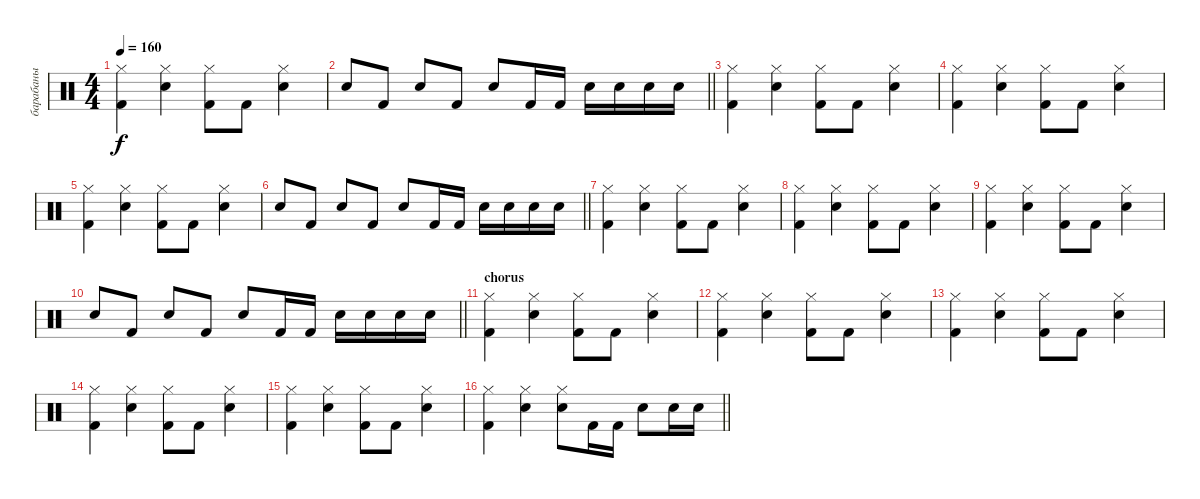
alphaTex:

\track ("барабаны" "барабаны") {instrument percussion}
\staff {score}
\articulation defaults
\ts (4 4)
\tempo 160
\clef neutral
\ks c
("Hi-Hat (closed)" "Kick (hit) 2").4{dy f} ("Hi-Hat (closed)" "Snare (hit) 2").4 ("Hi-Hat (closed)" "Kick (hit) 2").8 "Kick (hit) 2".8 ("Hi-Hat (closed)" "Snare (hit) 2").4 |
\barLineRight lightlight "Snare (hit) 2".8 "Kick (hit) 2".8 "Snare (hit) 2".8 "Kick (hit) 2".8 "Snare (hit) 2".8 "Kick (hit) 2".16 "Kick (hit) 2".16 "Snare (hit) 2".16 "Snare (hit) 2".16 "Snare (hit) 2".16 "Snare (hit) 2".16
|
("Hi-Hat (closed)" "Kick (hit) 2").4 ("Hi-Hat (closed)" "Snare (hit) 2").4 ("Hi-Hat (closed)" "Kick (hit) 2").8 "Kick (hit) 2".8 ("Hi-Hat (closed)" "Snare (hit) 2").4 |
("Hi-Hat (closed)" "Kick (hit) 2").4 ("Hi-Hat (closed)" "Snare (hit) 2").4 ("Hi-Hat (closed)" "Kick (hit) 2").8 "Kick (hit) 2".8 ("Hi-Hat (closed)" "Snare (hit) 2").4 |
("Hi-Hat (closed)" "Kick (hit) 2").4 ("Hi-Hat (closed)" "Snare (hit) 2").4 ("Hi-Hat (closed)" "Kick (hit) 2").8 "Kick (hit) 2".8 ("Hi-Hat (closed)" "Snare (hit) 2").4 |
\barLineRight lightlight "Snare (hit) 2".8 "Kick (hit) 2".8 "Snare (hit) 2".8 "Kick (hit) 2".8 "Snare (hit) 2".8 "Kick (hit) 2".16 "Kick (hit) 2".16 "Snare (hit) 2".16 "Snare (hit) 2".16 "Snare (hit) 2".16 "Snare (hit) 2".16
|
("Hi-Hat (closed)" "Kick (hit) 2").4 ("Hi-Hat (closed)" "Snare (hit) 2").4 ("Hi-Hat (closed)" "Kick (hit) 2").8 "Kick (hit) 2".8 ("Hi-Hat (closed)" "Snare (hit) 2").4 |
("Hi-Hat (closed)" "Kick (hit) 2").4 ("Hi-Hat (closed)" "Snare (hit) 2").4 ("Hi-Hat (closed)" "Kick (hit) 2").8 "Kick (hit) 2".8 ("Hi-Hat (closed)" "Snare (hit) 2").4 |
("Hi-Hat (closed)" "Kick (hit) 2").4 ("Hi-Hat (closed)" "Snare (hit) 2").4 ("Hi-Hat (closed)" "Kick (hit) 2").8 "Kick (hit) 2".8 ("Hi-Hat (closed)" "Snare (hit) 2").4 |
\barLineRight lightlight "Snare (hit) 2".8 "Kick (hit) 2".8 "Snare (hit) 2".8 "Kick (hit) 2".8 "Snare (hit) 2".8 "Kick (hit) 2".16 "Kick (hit) 2".16 "Snare (hit) 2".16 "Snare (hit) 2".16 "Snare (hit) 2".16 "Snare (hit) 2".16
|
\section ("" "chorus")
("Hi-Hat (closed)" "Kick (hit) 2").4 ("Hi-Hat (closed)" "Snare (hit) 2").4 ("Hi-Hat (closed)" "Kick (hit) 2").8 "Kick (hit) 2".8 ("Hi-Hat (closed)" "Snare (hit) 2").4 |
("Hi-Hat (closed)" "Kick (hit) 2").4 ("Hi-Hat (closed)" "Snare (hit) 2").4 ("Hi-Hat (closed)" "Kick (hit) 2").8 "Kick (hit) 2".8 ("Hi-Hat (closed)" "Snare (hit) 2").4 |
("Hi-Hat (closed)" "Kick (hit) 2").4 ("Hi-Hat (closed)" "Snare (hit) 2").4 ("Hi-Hat (closed)" "Kick (hit) 2").8 "Kick (hit) 2".8 ("Hi-Hat (closed)" "Snare (hit) 2").4 |
("Hi-Hat (closed)" "Kick (hit) 2").4 ("Hi-Hat (closed)" "Snare (hit) 2").4 ("Hi-Hat (closed)" "Kick (hit) 2").8 "Kick (hit) 2".8 ("Hi-Hat (closed)" "Snare (hit) 2").4 |
("Hi-Hat (closed)" "Kick (hit) 2").4 ("Hi-Hat (closed)" "Snare (hit) 2").4 ("Hi-Hat (closed)" "Kick (hit) 2").8 "Kick (hit) 2".8 ("Hi-Hat (closed)" "Snare (hit) 2").4 |
\barLineRight lightlight
("Hi-Hat (closed)" "Kick (hit) 2").4 ("Hi-Hat (closed)" "Snare (hit) 2").4 ("Hi-Hat (closed)" "Snare (hit) 2").8 "Kick (hit) 2".16 "Kick (hit) 2".16 "Snare (hit) 2".8 "Snare (hit) 2".16 "Snare (hit) 2".16
